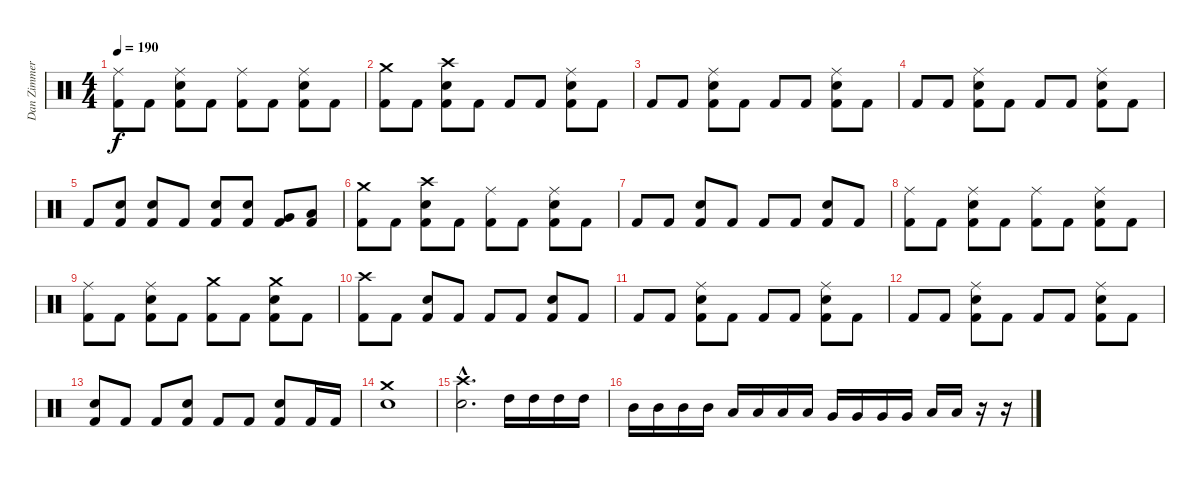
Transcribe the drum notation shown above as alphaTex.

\track ("Dan Zimmermann" "Dan Zimmer") {instrument percussion}
\staff {score}
\articulation defaults
\ts (4 4)
\tempo 190
\clef neutral
\ks c
("Ride (middle)" "Kick (hit) 2").8{dy f} "Kick (hit) 2".8 ("Ride (middle)" "Electric Snare (hit)" "Kick (hit) 2").8 "Kick (hit) 2".8 ("Ride (middle)" "Kick (hit) 2").8 "Kick (hit) 2".8 ("Ride (middle)" "Electric Snare (hit)" "Kick (hit) 2").8 "Kick (hit) 2".8 |
("Crash medium (hit)" "Kick (hit) 2").8 "Kick (hit) 2".8 ("Crash high (hit)" "Electric Snare (hit)" "Kick (hit) 2").8 "Kick (hit) 2".8 "Kick (hit) 2".8 "Kick (hit) 2".8 ("Ride (middle)" "Electric Snare (hit)" "Kick (hit) 2").8 "Kick (hit) 2".8 |
"Kick (hit) 2".8 "Kick (hit) 2".8 ("Ride (middle)" "Electric Snare (hit)" "Kick (hit) 2").8 "Kick (hit) 2".8 "Kick (hit) 2".8 "Kick (hit) 2".8 ("Ride (middle)" "Electric Snare (hit)" "Kick (hit) 2").8 "Kick (hit) 2".8 |
"Kick (hit) 2".8 "Kick (hit) 2".8 ("Ride (middle)" "Electric Snare (hit)" "Kick (hit) 2").8 "Kick (hit) 2".8 "Kick (hit) 2".8 "Kick (hit) 2".8 ("Ride (middle)" "Electric Snare (hit)" "Kick (hit) 2").8 "Kick (hit) 2".8 |
"Kick (hit) 2".8 ("Electric Snare (hit)" "Kick (hit) 2").8 ("Electric Snare (hit)" "Kick (hit) 2").8 "Kick (hit) 2".8 ("Electric Snare (hit)" "Kick (hit) 2").8 ("Electric Snare (hit)" "Kick (hit) 2").8 ("Very Low Tom (hit)" "Kick (hit) 2").8 ("Low Floor Tom (hit)" "Kick (hit) 2").8 |
("Crash medium (hit)" "Kick (hit) 2").8 "Kick (hit) 2".8 ("Crash high (hit)" "Electric Snare (hit)" "Kick (hit) 2").8 "Kick (hit) 2".8 ("Ride (middle)" "Kick (hit) 2").8 "Kick (hit) 2".8 ("Ride (middle)" "Electric Snare (hit)" "Kick (hit) 2").8 "Kick (hit) 2".8 |
"Kick (hit) 2".8 "Kick (hit) 2".8 ("Electric Snare (hit)" "Kick (hit) 2").8 "Kick (hit) 2".8 "Kick (hit) 2".8 "Kick (hit) 2".8 ("Electric Snare (hit)" "Kick (hit) 2").8 "Kick (hit) 2".8 |
("Ride (middle)" "Kick (hit) 2").8 "Kick (hit) 2".8 ("Ride (middle)" "Electric Snare (hit)" "Kick (hit) 2").8 "Kick (hit) 2".8 ("Ride (middle)" "Kick (hit) 2").8 "Kick (hit) 2".8 ("Ride (middle)" "Electric Snare (hit)" "Kick (hit) 2").8 "Kick (hit) 2".8 |
("Ride (middle)" "Kick (hit) 2").8 "Kick (hit) 2".8 ("Ride (middle)" "Electric Snare (hit)" "Kick (hit) 2").8 "Kick (hit) 2".8 ("Crash medium (hit)" "Kick (hit) 2").8 "Kick (hit) 2".8 ("Crash medium (hit)" "Electric Snare (hit)" "Kick (hit) 2").8 "Kick (hit) 2".8 |
("Crash high (hit)" "Kick (hit) 2").8 "Kick (hit) 2".8 ("Electric Snare (hit)" "Kick (hit) 2").8 "Kick (hit) 2".8 "Kick (hit) 2".8 "Kick (hit) 2".8 ("Electric Snare (hit)" "Kick (hit) 2").8 "Kick (hit) 2".8 |
"Kick (hit) 2".8 "Kick (hit) 2".8 ("Ride (middle)" "Electric Snare (hit)" "Kick (hit) 2").8 "Kick (hit) 2".8 "Kick (hit) 2".8 "Kick (hit) 2".8 ("Ride (middle)" "Electric Snare (hit)" "Kick (hit) 2").8 "Kick (hit) 2".8 |
"Kick (hit) 2".8 "Kick (hit) 2".8 ("Ride (middle)" "Electric Snare (hit)" "Kick (hit) 2").8 "Kick (hit) 2".8 "Kick (hit) 2".8 "Kick (hit) 2".8 ("Ride (middle)" "Electric Snare (hit)" "Kick (hit) 2").8 "Kick (hit) 2".8 |
("Electric Snare (hit)" "Kick (hit) 2").8 "Kick (hit) 2".8 "Kick (hit) 2".8 ("Electric Snare (hit)" "Kick (hit) 2").8 "Kick (hit) 2".8 "Kick (hit) 2".8 ("Electric Snare (hit)" "Kick (hit) 2").8 "Kick (hit) 2".16 "Kick (hit) 2".16 |
("Crash medium (hit)" "Electric Snare (hit)").1 |
("Crash high (hit)"{hac} "Electric Snare (hit)"{hac}).2{d} "High Tom (hit)".16 "High Tom (hit)".16 "High Tom (hit)".16 "High Tom (hit)".16 |
"Mid Tom (hit)".16 "Mid Tom (hit)".16 "Mid Tom (hit)".16 "Mid Tom (hit)".16 "Low Tom (hit)".16 "Low Tom (hit)".16 "Low Tom (hit)".16 "Low Tom (hit)".16 "Very Low Tom (hit)".16 "Very Low Tom (hit)".16 "Very Low Tom (hit)".16 "Very Low Tom (hit)".16 "Low Floor Tom (hit)".16 "Low Floor Tom (hit)".16 r.16 r.16
